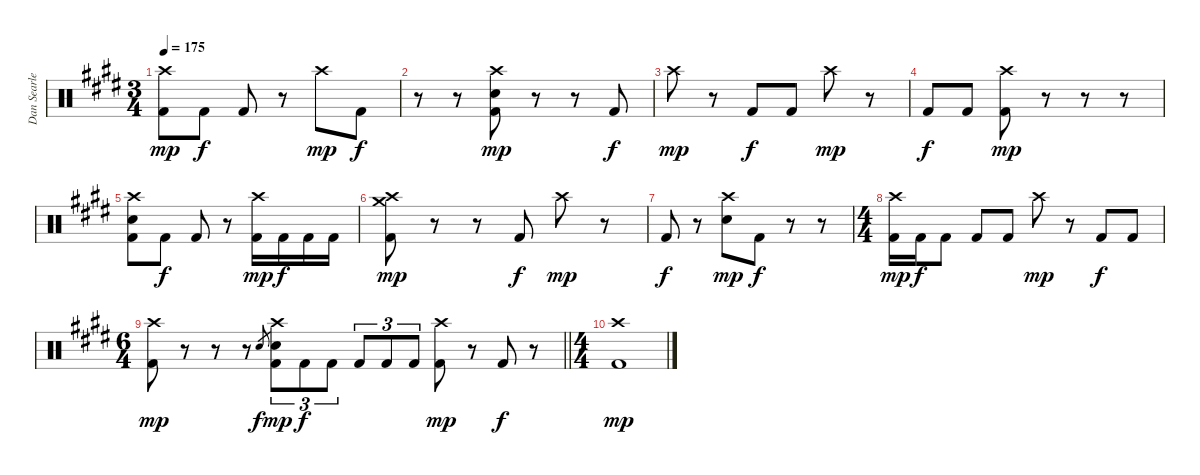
\track ("Dan Searle" "Dan Searle") {instrument percussion}
\staff {score}
\articulation defaults
\ts (3 4)
\tempo 175
\clef neutral
\ks e
("Crash high (hit)" "Kick (hit) 2").8{dy mp} "Kick (hit) 2".8{dy f} "Kick (hit) 2".8 r.8 "Crash high (hit)".8{dy mp} "Kick (hit) 2".8{dy f} |
r.8 r.8 ("Crash high (hit)" "Electric Snare (hit)" "Kick (hit) 2").8{dy mp} r.8 r.8 "Kick (hit) 2".8{dy f} |
"Crash high (hit)".8{dy mp} r.8 "Kick (hit) 2".8{dy f} "Kick (hit) 2".8 "Crash high (hit)".8{dy mp} r.8 |
"Kick (hit) 2".8{dy f} "Kick (hit) 2".8 ("Crash high (hit)" "Kick (hit) 2").8{dy mp} r.8 r.8 r.8 |
("Crash high (hit)" "Electric Snare (hit)" "Kick (hit) 2").8 "Kick (hit) 2".8{dy f} "Kick (hit) 2".8 r.8 ("Crash high (hit)" "Kick (hit) 2").16{dy mp} "Kick (hit) 2".16{dy f} "Kick (hit) 2".16 "Kick (hit) 2".16 |
("Crash high (hit)" "Crash medium (hit)" "Kick (hit) 2").8{dy mp} r.8 r.8 "Kick (hit) 2".8{dy f} "Crash high (hit)".8{dy mp} r.8 |
"Kick (hit) 2".8{dy f} r.8 ("Crash high (hit)" "Electric Snare (hit)").8{dy mp} "Kick (hit) 2".8{dy f} r.8 r.8 |
\ts (4 4)
("Crash high (hit)" "Kick (hit) 2").16{dy mp} "Kick (hit) 2".16{dy f} "Kick (hit) 2".8 "Kick (hit) 2".8 "Kick (hit) 2".8 "Crash high (hit)".8{dy mp} r.8 "Kick (hit) 2".8{dy f} "Kick (hit) 2".8 |
\ts (6 4)
\barLineRight lightlight
("Crash high (hit)" "Kick (hit) 2").8{dy mp} r.8 r.8 r.8 "Electric Snare (hit)".8{gr dy f} ("Crash high (hit)" "Electric Snare (hit)" "Kick (hit) 2").8{tu (3 2) dy mp} "Kick (hit) 2".8{tu (3 2) dy f} "Kick (hit) 2".8{tu (3 2)} "Kick (hit) 2".8{tu (3 2)} "Kick (hit) 2".8{tu (3 2)} "Kick (hit) 2".8{tu (3 2)} ("Crash high (hit)" "Kick (hit) 2").8{dy mp} r.8 "Kick (hit) 2".8{dy f} r.8 |
\ts (4 4)
("Crash high (hit)" "Kick (hit) 2").1{dy mp}
